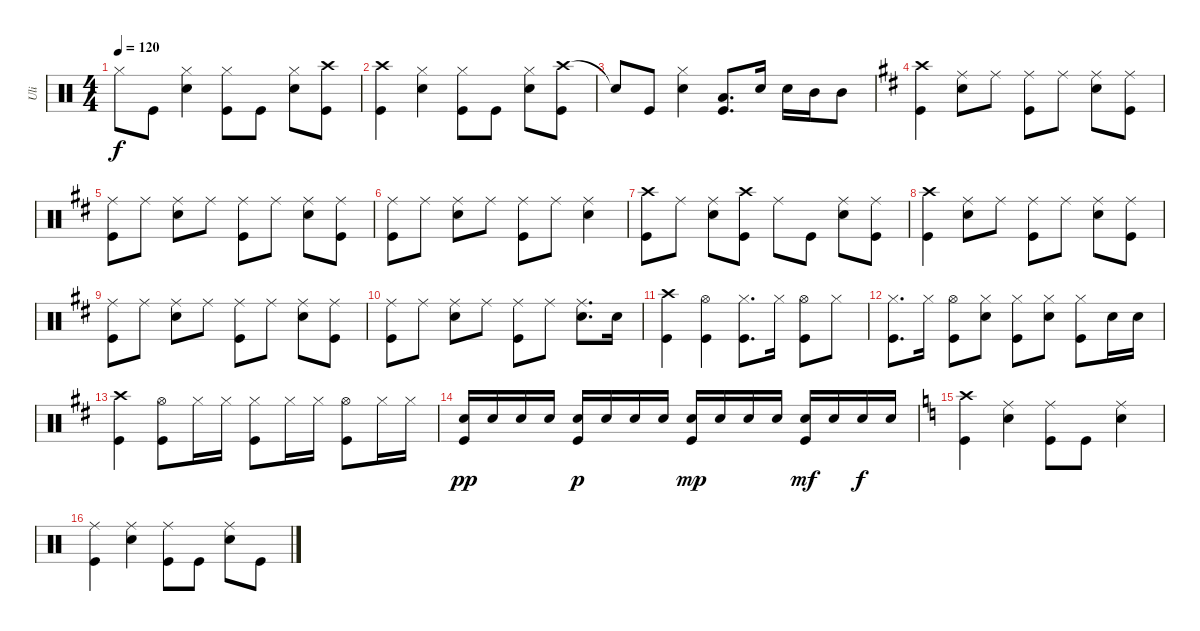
\track ("Uli" "Uli") {instrument percussion}
\staff {score}
\articulation defaults
\ts (4 4)
\tempo 120
\clef neutral
\ks aminor "Hi-Hat (closed)".8{dy f} "Kick (hit)".8
("Hi-Hat (closed)" "Snare (hit) 2").4 ("Hi-Hat (closed)" "Kick (hit)").8 "Kick (hit)".8 ("Hi-Hat (closed)" "Snare (hit) 2").8 ("Crash high (hit)" "Kick (hit)").8 |
("Crash high (hit)" "Kick (hit)").4 ("Hi-Hat (closed)" "Snare (hit) 2").4 ("Hi-Hat (closed)" "Kick (hit)").8 "Kick (hit)".8 ("Hi-Hat (closed)" "Snare (hit) 2").8 ("Crash high (hit)" "Kick (hit)").8 |
"Snare (hit)"{t}.8 "Kick (hit)".8 ("Hi-Hat (closed)" "Snare (hit) 2").4 ("Low Tom (hit)" "Kick (hit)").8{d} "Snare (hit) 2".16 "Snare (hit) 2".16 "Mid Tom (hit)".16 "Mid Tom (hit)".8 |
\ks bminor
("Crash high (hit)" "Kick (hit)").4 ("Ride (middle)" "Snare (hit) 2").8 "Ride (middle)".8 ("Ride (middle)" "Kick (hit)").8 "Ride (middle)".8 ("Ride (middle)" "Snare (hit) 2").8 ("Ride (middle)" "Kick (hit)").8 |
("Ride (middle)" "Kick (hit)").8 "Ride (middle)".8 ("Ride (middle)" "Snare (hit) 2").8 "Ride (middle)".8 ("Ride (middle)" "Kick (hit)").8 "Ride (middle)".8 ("Ride (middle)" "Snare (hit) 2").8 ("Ride (middle)" "Kick (hit)").8 |
("Ride (middle)" "Kick (hit)").8 "Ride (middle)".8 ("Ride (middle)" "Snare (hit) 2").8 "Ride (middle)".8 ("Ride (middle)" "Kick (hit)").8 "Ride (middle)".8 ("Ride (middle)" "Snare (hit) 2").4 |
("Crash high (hit)" "Kick (hit)").8 "Ride (middle)".8 ("Ride (middle)" "Snare (hit) 2").8 ("Crash high (hit)" "Kick (hit)").8 "Ride (middle)".8 "Kick (hit)".8 ("Ride (middle)" "Snare (hit) 2").8 ("Ride (middle)" "Kick (hit)").8 |
("Crash high (hit)" "Kick (hit)").4 ("Ride (middle)" "Snare (hit) 2").8 "Ride (middle)".8 ("Ride (middle)" "Kick (hit)").8 "Ride (middle)".8 ("Ride (middle)" "Snare (hit) 2").8 ("Ride (middle)" "Kick (hit)").8 |
("Ride (middle)" "Kick (hit)").8 "Ride (middle)".8 ("Ride (middle)" "Snare (hit) 2").8 "Ride (middle)".8 ("Ride (middle)" "Kick (hit)").8 "Ride (middle)".8 ("Ride (middle)" "Snare (hit) 2").8 ("Ride (middle)" "Kick (hit)").8 |
("Ride (middle)" "Kick (hit)").8 "Ride (middle)".8 ("Ride (middle)" "Snare (hit) 2").8 "Ride (middle)".8 ("Ride (middle)" "Kick (hit)").8 "Ride (middle)".8 ("Ride (middle)" "Snare (hit) 2").8{d} "Snare (hit) 2".16 |
("Crash high (hit)" "Kick (hit)").4 ("Hi-Hat (open)" "Kick (hit)").4 ("Hi-Hat (closed)" "Kick (hit)").8{d} "Hi-Hat (closed)".16 ("Hi-Hat (open)" "Kick (hit)").8 "Hi-Hat (closed)".8 |
("Hi-Hat (closed)" "Kick (hit)").8{d} "Hi-Hat (closed)".16 ("Hi-Hat (open)" "Kick (hit)").8 ("Hi-Hat (closed)" "Snare (hit) 2").8 ("Hi-Hat (closed)" "Kick (hit)").8 ("Hi-Hat (closed)" "Snare (hit) 2").8 ("Hi-Hat (closed)" "Kick (hit)").8 "Snare (hit) 2".16 "Snare (hit) 2".16 |
("Crash high (hit)" "Kick (hit)").4 ("Hi-Hat (open)" "Kick (hit)").8 "Hi-Hat (closed)".16 "Hi-Hat (closed)".16 ("Hi-Hat (closed)" "Kick (hit)").8 "Hi-Hat (closed)".16 "Hi-Hat (closed)".16 ("Hi-Hat (open)" "Kick (hit)").8 "Hi-Hat (closed)".16 "Hi-Hat (closed)".16 |
("Snare (hit) 2" "Kick (hit)").16{dy pp} "Snare (hit) 2".16 "Snare (hit) 2".16 "Snare (hit) 2".16 ("Snare (hit) 2" "Kick (hit)").16{dy p} "Snare (hit) 2".16 "Snare (hit) 2".16 "Snare (hit) 2".16 ("Snare (hit) 2" "Kick (hit)").16{dy mp} "Snare (hit) 2".16 "Snare (hit) 2".16 "Snare (hit) 2".16 ("Snare (hit) 2" "Kick (hit)").16{dy mf} "Snare (hit) 2".16 "Snare (hit) 2".16{dy f} "Snare (hit) 2".16 |
\ks aminor
("Crash high (hit)" "Kick (hit)").4 ("Ride (middle)" "Snare (hit) 2").4 ("Ride (middle)" "Kick (hit)").8 "Kick (hit)".8 ("Ride (middle)" "Snare (hit) 2").4 |
("Ride (middle)" "Kick (hit)").4 ("Ride (middle)" "Snare (hit) 2").4 ("Ride (middle)" "Kick (hit)").8 "Kick (hit)".8 ("Ride (middle)" "Snare (hit) 2").8 "Kick (hit)".8
